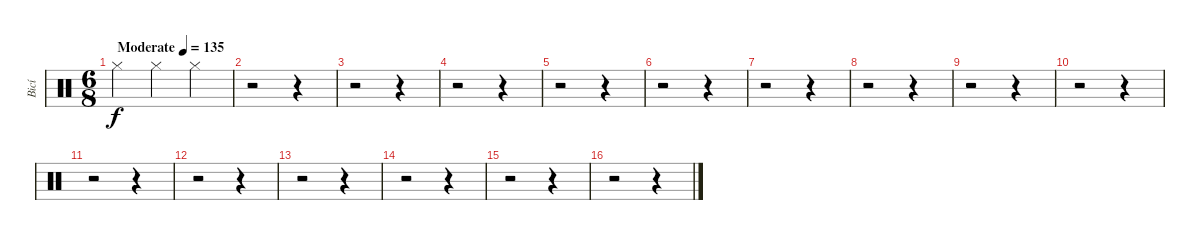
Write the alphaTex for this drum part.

\track ("Bicí" "Bicí") {instrument percussion}
\staff {score}
\articulation defaults
\ts (6 8)
\tempo (135 "Moderate")
\clef neutral
\ks c "Hi-Hat (closed)".4{dy f} "Hi-Hat (closed)".4 "Hi-Hat (closed)".4
|
r.2 r.4 |
r.2 r.4 |
r.2 r.4 |
r.2 r.4 |
r.2 r.4 |
r.2 r.4 |
r.2 r.4 |
r.2 r.4 |
r.2 r.4 |
r.2 r.4 |
r.2 r.4 |
r.2 r.4 |
r.2 r.4 |
r.2 r.4 |
r.2 r.4
